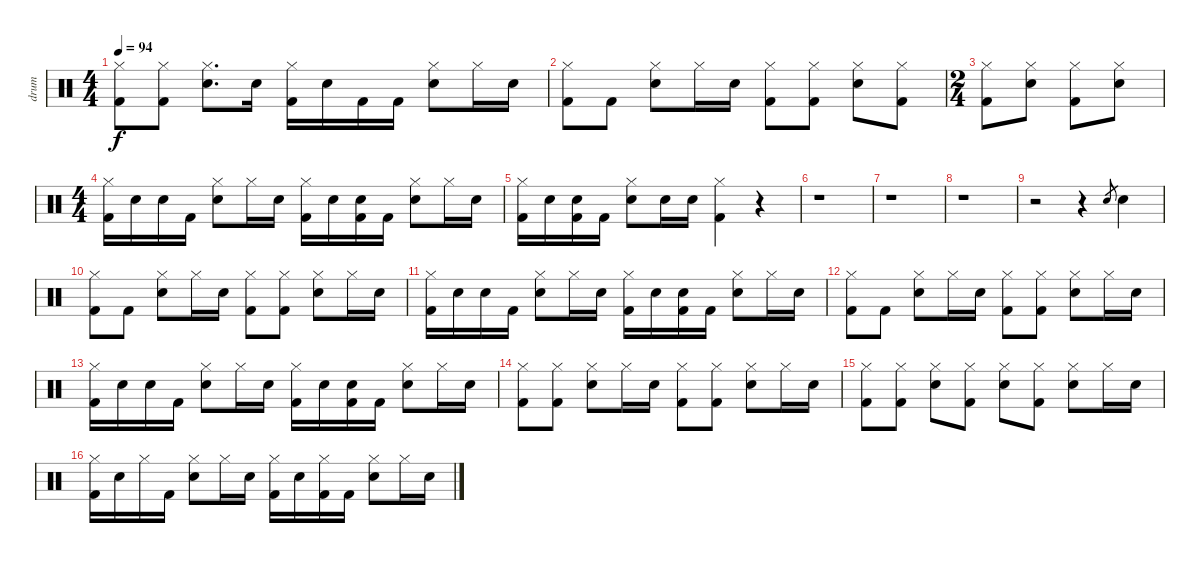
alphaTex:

\track ("drum" "drum") {instrument percussion}
\staff {score}
\articulation defaults
\ts (4 4)
\tempo 94
\clef neutral
\ks c
("Hi-Hat (closed)" "Kick (hit) 2").8{dy f} ("Hi-Hat (closed)" "Kick (hit) 2").8 ("Hi-Hat (closed)" "Electric Snare (hit)").8{d} "Electric Snare (hit)".16 ("Hi-Hat (closed)" "Kick (hit) 2").16 "Electric Snare (hit)".16 "Kick (hit) 2".16 "Kick (hit) 2".16 ("Hi-Hat (closed)" "Electric Snare (hit)").8 "Hi-Hat (closed)".16 "Electric Snare (hit)".16 |
("Hi-Hat (closed)" "Kick (hit) 2").8 "Kick (hit) 2".8 ("Hi-Hat (closed)" "Electric Snare (hit)").8 "Hi-Hat (closed)".16 "Electric Snare (hit)".16 ("Hi-Hat (closed)" "Kick (hit) 2").8 ("Hi-Hat (closed)" "Kick (hit) 2").8 ("Electric Snare (hit)" "Hi-Hat (closed)").8 ("Hi-Hat (closed)" "Kick (hit) 2").8 |
\ts (2 4)
("Hi-Hat (closed)" "Kick (hit) 2").8 ("Hi-Hat (closed)" "Electric Snare (hit)").8 ("Hi-Hat (closed)" "Kick (hit) 2").8 ("Hi-Hat (closed)" "Electric Snare (hit)").8 |
\ts (4 4)
("Hi-Hat (closed)" "Kick (hit) 2").16 "Electric Snare (hit)".16 "Electric Snare (hit)".16 "Kick (hit) 2".16 ("Hi-Hat (closed)" "Electric Snare (hit)").8 "Hi-Hat (closed)".16 "Electric Snare (hit)".16 ("Hi-Hat (closed)" "Kick (hit) 2").16 "Electric Snare (hit)".16 ("Electric Snare (hit)" "Kick (hit) 2").16 "Kick (hit) 2".16 ("Hi-Hat (closed)" "Electric Snare (hit)").8 "Hi-Hat (closed)".16 "Electric Snare (hit)".16 |
("Hi-Hat (closed)" "Kick (hit) 2").16 "Electric Snare (hit)".16 ("Electric Snare (hit)" "Kick (hit) 2").16 "Kick (hit) 2".16 ("Hi-Hat (closed)" "Electric Snare (hit)").8 "Electric Snare (hit)".16 "Electric Snare (hit)".16 ("Hi-Hat (closed)" "Kick (hit) 2").4 r.4 |
r.1 |
r.1 |
r.1 |
r.2 r.4 "Electric Snare (hit)".8{gr} "Electric Snare (hit)".4 |
("Hi-Hat (closed)" "Kick (hit) 2").8 "Kick (hit) 2".8 ("Hi-Hat (closed)" "Electric Snare (hit)").8 "Hi-Hat (closed)".16 "Electric Snare (hit)".16 ("Hi-Hat (closed)" "Kick (hit) 2").8 ("Hi-Hat (closed)" "Kick (hit) 2").8 ("Electric Snare (hit)" "Hi-Hat (closed)").8 "Hi-Hat (closed)".16 "Electric Snare (hit)".16 |
("Hi-Hat (closed)" "Kick (hit) 2").16 "Electric Snare (hit)".16 "Electric Snare (hit)".16 "Kick (hit) 2".16 ("Hi-Hat (closed)" "Electric Snare (hit)").8 "Hi-Hat (closed)".16 "Electric Snare (hit)".16 ("Hi-Hat (closed)" "Kick (hit) 2").16 "Electric Snare (hit)".16 ("Electric Snare (hit)" "Kick (hit) 2").16 "Kick (hit) 2".16 ("Hi-Hat (closed)" "Electric Snare (hit)").8 "Hi-Hat (closed)".16 "Electric Snare (hit)".16 |
("Hi-Hat (closed)" "Kick (hit) 2").8 "Kick (hit) 2".8 ("Hi-Hat (closed)" "Electric Snare (hit)").8 "Hi-Hat (closed)".16 "Electric Snare (hit)".16 ("Hi-Hat (closed)" "Kick (hit) 2").8 ("Hi-Hat (closed)" "Kick (hit) 2").8 ("Electric Snare (hit)" "Hi-Hat (closed)").8 "Hi-Hat (closed)".16 "Electric Snare (hit)".16 |
("Hi-Hat (closed)" "Kick (hit) 2").16 "Electric Snare (hit)".16 "Electric Snare (hit)".16 "Kick (hit) 2".16 ("Hi-Hat (closed)" "Electric Snare (hit)").8 "Hi-Hat (closed)".16 "Electric Snare (hit)".16 ("Hi-Hat (closed)" "Kick (hit) 2").16 "Electric Snare (hit)".16 ("Electric Snare (hit)" "Kick (hit) 2").16 "Kick (hit) 2".16 ("Hi-Hat (closed)" "Electric Snare (hit)").8 "Hi-Hat (closed)".16 "Electric Snare (hit)".16 |
("Hi-Hat (closed)" "Kick (hit) 2").8 ("Hi-Hat (closed)" "Kick (hit) 2").8 ("Hi-Hat (closed)" "Electric Snare (hit)").8 "Hi-Hat (closed)".16 "Electric Snare (hit)".16 ("Hi-Hat (closed)" "Kick (hit) 2").8 ("Hi-Hat (closed)" "Kick (hit) 2").8 ("Electric Snare (hit)" "Hi-Hat (closed)").8 "Hi-Hat (closed)".16 "Electric Snare (hit)".16 |
("Hi-Hat (closed)" "Kick (hit) 2").8 ("Hi-Hat (closed)" "Kick (hit) 2").8 ("Hi-Hat (closed)" "Electric Snare (hit)").8 ("Hi-Hat (closed)" "Kick (hit) 2").8 ("Hi-Hat (closed)" "Electric Snare (hit)").8 ("Kick (hit) 2" "Hi-Hat (closed)").8 ("Hi-Hat (closed)" "Electric Snare (hit)").8 "Hi-Hat (closed)".16 "Electric Snare (hit)".16 |
("Hi-Hat (closed)" "Kick (hit) 2").16 "Electric Snare (hit)".16 "Hi-Hat (closed)".16 "Kick (hit) 2".16 ("Hi-Hat (closed)" "Electric Snare (hit)").8 "Hi-Hat (closed)".16 "Electric Snare (hit)".16 ("Hi-Hat (closed)" "Kick (hit) 2").16 "Electric Snare (hit)".16 ("Hi-Hat (closed)" "Kick (hit) 2").16 "Kick (hit) 2".16 ("Hi-Hat (closed)" "Electric Snare (hit)").8 "Hi-Hat (closed)".16 "Electric Snare (hit)".16
